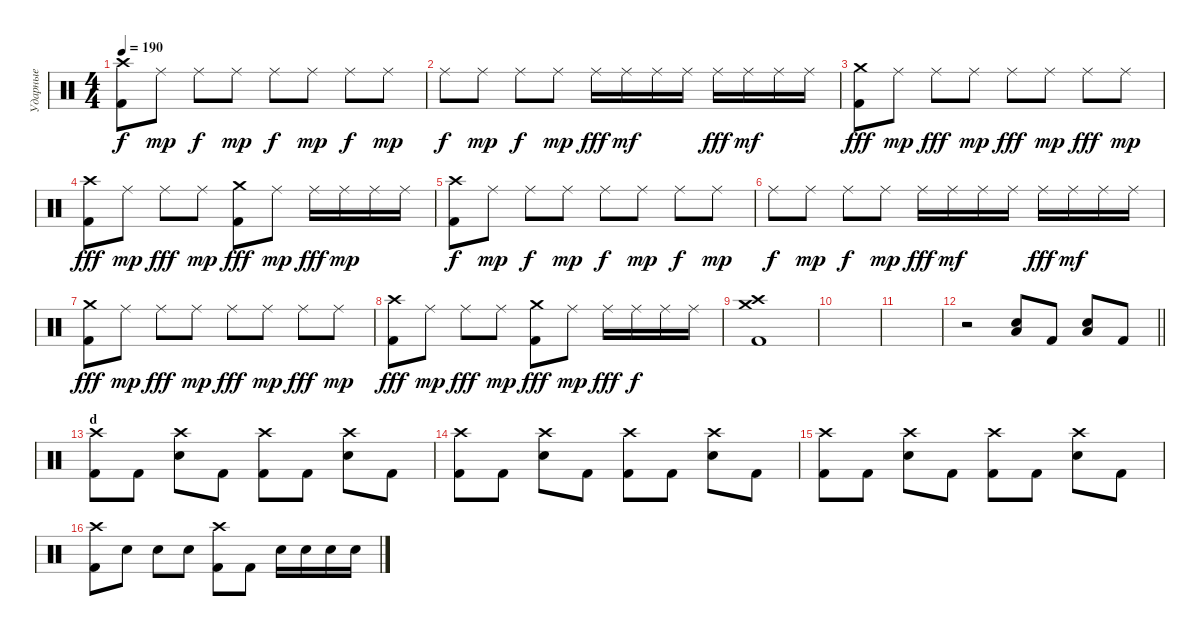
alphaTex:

\track ("Ударные" "Ударные") {instrument percussion}
\staff {score}
\articulation defaults
\ts (4 4)
\tempo 190
\clef neutral
\ks c
("Crash high (hit)" "Kick (hit) 2").8{dy f} "Ride (middle)".8{dy mp} "Ride (middle)".8{dy f} "Ride (middle)".8{dy mp} "Ride (middle)".8{dy f} "Ride (middle)".8{dy mp} "Ride (middle)".8{dy f} "Ride (middle)".8{dy mp} |
"Ride (middle)".8{dy f} "Ride (middle)".8{dy mp} "Ride (middle)".8{dy f} "Ride (middle)".8{dy mp} "Ride (middle)".16{dy fff} "Ride (middle)".16{dy mf} "Ride (middle)".16 "Ride (middle)".16 "Ride (middle)".16{dy fff} "Ride (middle)".16{dy mf} "Ride (middle)".16 "Ride (middle)".16 |
("Crash medium (hit)" "Kick (hit) 2").8{dy fff} "Ride (middle)".8{dy mp} "Ride (middle)".8{dy fff} "Ride (middle)".8{dy mp} "Ride (middle)".8{dy fff} "Ride (middle)".8{dy mp} "Ride (middle)".8{dy fff} "Ride (middle)".8{dy mp} |
("Crash high (hit)" "Kick (hit) 2").8{dy fff} "Ride (middle)".8{dy mp} "Ride (middle)".8{dy fff} "Ride (middle)".8{dy mp} ("Crash medium (hit)" "Kick (hit) 2").8{dy fff} "Ride (middle)".8{dy mp} "Ride (middle)".16{dy fff} "Ride (middle)".16{dy mp} "Ride (middle)".16 "Ride (middle)".16 |
("Crash high (hit)" "Kick (hit) 2").8{dy f} "Ride (middle)".8{dy mp} "Ride (middle)".8{dy f} "Ride (middle)".8{dy mp} "Ride (middle)".8{dy f} "Ride (middle)".8{dy mp} "Ride (middle)".8{dy f} "Ride (middle)".8{dy mp} |
"Ride (middle)".8{dy f} "Ride (middle)".8{dy mp} "Ride (middle)".8{dy f} "Ride (middle)".8{dy mp} "Ride (middle)".16{dy fff} "Ride (middle)".16{dy mf} "Ride (middle)".16 "Ride (middle)".16 "Ride (middle)".16{dy fff} "Ride (middle)".16{dy mf} "Ride (middle)".16 "Ride (middle)".16 |
("Crash medium (hit)" "Kick (hit) 2").8{dy fff} "Ride (middle)".8{dy mp} "Ride (middle)".8{dy fff} "Ride (middle)".8{dy mp} "Ride (middle)".8{dy fff} "Ride (middle)".8{dy mp} "Ride (middle)".8{dy fff} "Ride (middle)".8{dy mp} |
("Crash high (hit)" "Kick (hit) 2").8{dy fff} "Ride (middle)".8{dy mp} "Ride (middle)".8{dy fff} "Ride (middle)".8{dy mp} ("Crash medium (hit)" "Kick (hit) 2").8{dy fff} "Ride (middle)".8{dy mp} "Ride (middle)".16{dy fff} "Ride (middle)".16{dy f} "Ride (middle)".16 "Ride (middle)".16 |
("Crash high (hit)" "Crash medium (hit)" "Kick (hit) 2").1 |
|
|
\barLineRight lightlight
r.2 ("Low Floor Tom (hit)" "Snare (hit) 2").8 "Kick (hit) 2".8 ("Low Floor Tom (hit)" "Snare (hit) 2").8 "Kick (hit) 2".8 |
\section ("" "d")
("Crash high (hit)" "Kick (hit) 2").8 "Kick (hit) 2".8 ("Crash high (hit)" "Snare (hit) 2").8 "Kick (hit) 2".8 ("Crash high (hit)" "Kick (hit) 2").8 "Kick (hit) 2".8 ("Crash high (hit)" "Snare (hit) 2").8 "Kick (hit) 2".8 |
("Crash high (hit)" "Kick (hit) 2").8 "Kick (hit) 2".8 ("Crash high (hit)" "Snare (hit) 2").8 "Kick (hit) 2".8 ("Crash high (hit)" "Kick (hit) 2").8 "Kick (hit) 2".8 ("Crash high (hit)" "Snare (hit) 2").8 "Kick (hit) 2".8 |
("Crash high (hit)" "Kick (hit) 2").8 "Kick (hit) 2".8 ("Crash high (hit)" "Snare (hit) 2").8 "Kick (hit) 2".8 ("Crash high (hit)" "Kick (hit) 2").8 "Kick (hit) 2".8 ("Crash high (hit)" "Snare (hit) 2").8 "Kick (hit) 2".8 |
("Crash high (hit)" "Kick (hit) 2").8 "Snare (hit) 2".8 "Snare (hit) 2".8 "Snare (hit) 2".8 ("Crash high (hit)" "Kick (hit) 2").8 "Kick (hit) 2".8 "Snare (hit) 2".16 "Snare (hit) 2".16 "Snare (hit) 2".16 "Snare (hit) 2".16
